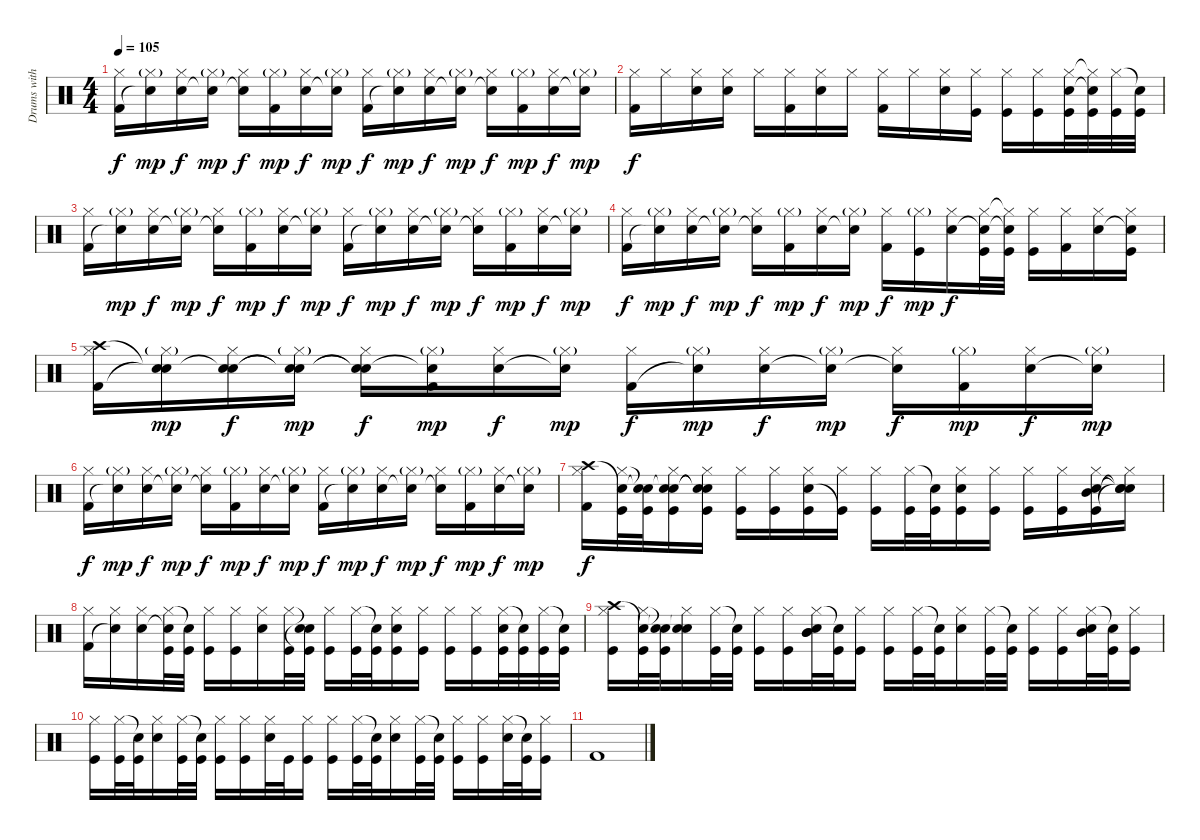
\track ("Drums with sampled drums (Rob and Joe)" "Drums with") {instrument percussion}
\staff {score}
\articulation defaults
\ts (4 4)
\tempo 105
\clef neutral
\ks c
("Hi-Hat (closed)" "Kick (hit) 2").16{dy f} ("Hi-Hat (closed)"{g} "Snare (hit)"{t}).16{dy mp} ("Hi-Hat (closed)" "Electric Snare (hit)").16{dy f} ("Hi-Hat (closed)"{g} "Snare (hit)"{t}).16{dy mp} ("Hi-Hat (closed)" "Snare (hit)"{t}).16{dy f} ("Hi-Hat (closed)"{g} "Kick (hit) 2").16{dy mp} ("Hi-Hat (closed)" "Electric Snare (hit)").16{dy f} ("Hi-Hat (closed)"{g} "Snare (hit)"{t}).16{dy mp} ("Hi-Hat (closed)" "Kick (hit) 2").16{dy f} ("Hi-Hat (closed)"{g} "Snare (hit)"{t}).16{dy mp} ("Hi-Hat (closed)" "Electric Snare (hit)").16{dy f} ("Hi-Hat (closed)"{g} "Snare (hit)"{t}).16{dy mp} ("Hi-Hat (closed)" "Snare (hit)"{t}).16{dy f} ("Hi-Hat (closed)"{g} "Kick (hit) 2").16{dy mp} ("Hi-Hat (closed)" "Electric Snare (hit)").16{dy f} ("Hi-Hat (closed)"{g} "Snare (hit)"{t}).16{dy mp} |
("Hi-Hat (closed)" "Kick (hit) 2").16{dy f} "Hi-Hat (closed)".16 ("Hi-Hat (closed)" "Electric Snare (hit)").16 ("Hi-Hat (closed)" "Electric Snare (hit)").16 "Hi-Hat (closed)".16 ("Hi-Hat (closed)" "Kick (hit) 2").16 ("Hi-Hat (closed)" "Electric Snare (hit)").16 "Hi-Hat (closed)".16 ("Hi-Hat (closed)" "Kick (hit) 2").16 "Hi-Hat (closed)".16 ("Hi-Hat (closed)" "Electric Snare (hit)").16 ("Hi-Hat (closed)" "Kick (hit)").16 ("Hi-Hat (closed)" "Kick (hit)").16 ("Hi-Hat (closed)" "Kick (hit)").16 ("Hi-Hat (closed)" "Electric Snare (hit)" "Kick (hit)").32 ("Hi-Hat (closed)"{t} "Snare (hit)"{t} "Kick (hit)").32 ("Hi-Hat (closed)" "Kick (hit)").32 ("Snare (hit)"{t} "Kick (hit)").32 |
("Hi-Hat (closed)" "Kick (hit) 2").16 ("Hi-Hat (closed)"{g} "Snare (hit)"{t}).16{dy mp} ("Hi-Hat (closed)" "Electric Snare (hit)").16{dy f} ("Hi-Hat (closed)"{g} "Snare (hit)"{t}).16{dy mp} ("Hi-Hat (closed)" "Snare (hit)"{t}).16{dy f} ("Hi-Hat (closed)"{g} "Kick (hit) 2").16{dy mp} ("Hi-Hat (closed)" "Electric Snare (hit)").16{dy f} ("Hi-Hat (closed)"{g} "Snare (hit)"{t}).16{dy mp} ("Hi-Hat (closed)" "Kick (hit) 2").16{dy f} ("Hi-Hat (closed)"{g} "Snare (hit)"{t}).16{dy mp} ("Hi-Hat (closed)" "Electric Snare (hit)").16{dy f} ("Hi-Hat (closed)"{g} "Snare (hit)"{t}).16{dy mp} ("Hi-Hat (closed)" "Snare (hit)"{t}).16{dy f} ("Hi-Hat (closed)"{g} "Kick (hit) 2").16{dy mp} ("Hi-Hat (closed)" "Electric Snare (hit)").16{dy f} ("Hi-Hat (closed)"{g} "Snare (hit)"{t}).16{dy mp} |
("Hi-Hat (closed)" "Kick (hit) 2").16{dy f} ("Hi-Hat (closed)"{g} "Snare (hit)"{t}).16{dy mp} ("Hi-Hat (closed)" "Electric Snare (hit)").16{dy f} ("Hi-Hat (closed)"{g} "Snare (hit)"{t}).16{dy mp} ("Hi-Hat (closed)" "Snare (hit)"{t}).16{dy f} ("Hi-Hat (closed)"{g} "Kick (hit) 2").16{dy mp} ("Hi-Hat (closed)" "Electric Snare (hit)").16{dy f} ("Hi-Hat (closed)"{g} "Snare (hit)"{t}).16{dy mp} ("Hi-Hat (closed)" "Kick (hit) 2").16{dy f} ("Hi-Hat (closed)"{g} "Kick (hit)").16{dy mp} ("Hi-Hat (closed)" "Electric Snare (hit)").16{dy f} ("Hi-Hat (closed)" "Snare (hit)"{t} "Kick (hit)").32 ("Hi-Hat (closed)"{t} "Snare (hit)"{t} "Kick (hit)").32 ("Hi-Hat (closed)" "Kick (hit)").16 ("Hi-Hat (closed)" "Kick (hit) 2").16 ("Hi-Hat (closed)" "Electric Snare (hit)").16 ("Hi-Hat (closed)" "Snare (hit)"{t} "Kick (hit)").16 |
("Crash high (hit)" "Hi-Hat (closed)" "Kick (hit) 2").16 ("Snare (hit)"{t} "Hi-Hat (closed)"{g} "Snare (hit)"{t}).16{dy mp} ("Snare (hit)"{t} "Hi-Hat (closed)" "Electric Snare (hit)").16{dy f} ("Snare (hit)"{t} "Hi-Hat (closed)"{g} "Snare (hit)"{t}).16{dy mp} ("Snare (hit)"{t} "Hi-Hat (closed)" "Snare (hit)"{t}).16{dy f} ("Snare (hit)"{t} "Hi-Hat (closed)"{g} "Kick (hit) 2").16{dy mp} ("Hi-Hat (closed)" "Electric Snare (hit)").16{dy f} ("Hi-Hat (closed)"{g} "Snare (hit)"{t}).16{dy mp} ("Hi-Hat (closed)" "Kick (hit) 2").16{dy f} ("Hi-Hat (closed)"{g} "Snare (hit)"{t}).16{dy mp} ("Hi-Hat (closed)" "Electric Snare (hit)").16{dy f} ("Hi-Hat (closed)"{g} "Snare (hit)"{t}).16{dy mp} ("Hi-Hat (closed)" "Snare (hit)"{t}).16{dy f} ("Hi-Hat (closed)"{g} "Kick (hit) 2").16{dy mp} ("Hi-Hat (closed)" "Electric Snare (hit)").16{dy f} ("Hi-Hat (closed)"{g} "Snare (hit)"{t}).16{dy mp} |
("Hi-Hat (closed)" "Kick (hit) 2").16{dy f} ("Hi-Hat (closed)"{g} "Snare (hit)"{t}).16{dy mp} ("Hi-Hat (closed)" "Electric Snare (hit)").16{dy f} ("Hi-Hat (closed)"{g} "Snare (hit)"{t}).16{dy mp} ("Hi-Hat (closed)" "Snare (hit)"{t}).16{dy f} ("Hi-Hat (closed)"{g} "Kick (hit) 2").16{dy mp} ("Hi-Hat (closed)" "Electric Snare (hit)").16{dy f} ("Hi-Hat (closed)"{g} "Snare (hit)"{t}).16{dy mp} ("Hi-Hat (closed)" "Kick (hit) 2").16{dy f} ("Hi-Hat (closed)"{g} "Snare (hit)"{t}).16{dy mp} ("Hi-Hat (closed)" "Electric Snare (hit)").16{dy f} ("Hi-Hat (closed)"{g} "Snare (hit)"{t}).16{dy mp} ("Hi-Hat (closed)" "Snare (hit)"{t}).16{dy f} ("Hi-Hat (closed)"{g} "Kick (hit) 2").16{dy mp} ("Hi-Hat (closed)" "Electric Snare (hit)").16{dy f} ("Hi-Hat (closed)"{g} "Snare (hit)"{t}).16{dy mp} |
("Crash high (hit)" "Hi-Hat (closed)" "Kick (hit) 2").16{dy f} ("Snare (hit)"{t} "Hi-Hat (closed)" "Kick (hit)").32 ("Snare (hit)"{t} "Snare (hit)"{t} "Kick (hit)").32 ("Snare (hit)"{t} "Hi-Hat (closed)" "Electric Snare (hit)" "Kick (hit)").16 ("Snare (hit)"{t} "Hi-Hat (closed)" "Snare (hit)"{t} "Kick (hit)").16 ("Hi-Hat (closed)" "Kick (hit)").16 ("Hi-Hat (closed)" "Kick (hit)").16 ("Hi-Hat (closed)" "Electric Snare (hit)" "Kick (hit)").16 ("Hi-Hat (closed)" "Kick (hit)"{t}).16 ("Hi-Hat (closed)" "Kick (hit)").16 ("Hi-Hat (closed)" "Kick (hit)").32 ("Snare (hit)"{t} "Kick (hit)").32 ("Hi-Hat (closed)" "Electric Snare (hit)" "Kick (hit)").16 ("Hi-Hat (closed)" "Kick (hit)").16 ("Hi-Hat (closed)" "Kick (hit)").16 ("Hi-Hat (closed)" "Kick (hit)").16 ("Hi-Hat (closed)" "Electric Snare (hit)" "Mid Tom (hit)" "Kick (hit)").16 ("Hi-Hat (closed)" "Snare (hit)"{t} "Snare (hit)"{t} "Snare (hit)"{t}).16 |
("Hi-Hat (closed)" "Kick (hit) 2").16 ("Hi-Hat (closed)" "Snare (hit)"{t}).16 ("Hi-Hat (closed)" "Electric Snare (hit)").16 ("Hi-Hat (closed)" "Snare (hit)"{t} "Kick (hit)").32 ("Snare (hit)"{t} "Kick (hit)").32 ("Hi-Hat (closed)" "Kick (hit)").16 ("Hi-Hat (closed)" "Kick (hit)").16 ("Hi-Hat (closed)" "Electric Snare (hit)").16 ("Hi-Hat (closed)" "Kick (hit)").32 ("Snare (hit)"{t} "Snare (hit)"{t} "Kick (hit)").32 ("Hi-Hat (closed)" "Kick (hit)").16 ("Hi-Hat (closed)" "Kick (hit)").32 ("Snare (hit)"{t} "Kick (hit)").32 ("Hi-Hat (closed)" "Electric Snare (hit)" "Kick (hit)").16 ("Hi-Hat (closed)" "Kick (hit)").16 ("Hi-Hat (closed)" "Kick (hit)").16 ("Hi-Hat (closed)" "Kick (hit)").16 ("Hi-Hat (closed)" "Electric Snare (hit)" "Kick (hit)").32 ("Snare (hit)"{t} "Kick (hit)").32 ("Hi-Hat (closed)" "Kick (hit)").32 ("Snare (hit)"{t} "Kick (hit)").32 |
("Crash high (hit)" "Hi-Hat (closed)" "Kick (hit)").16 ("Snare (hit)"{t} "Hi-Hat (closed)" "Kick (hit)").32 ("Snare (hit)"{t} "Snare (hit)"{t} "Kick (hit)").32 ("Snare (hit)"{t} "Hi-Hat (closed)" "Electric Snare (hit)").16 ("Hi-Hat (closed)" "Kick (hit)").32 ("Snare (hit)"{t} "Kick (hit)").32 ("Hi-Hat (closed)" "Kick (hit)").16 ("Hi-Hat (closed)" "Kick (hit)").16 ("Hi-Hat (closed)" "Mid Tom (hit)" "Electric Snare (hit)" "Mid Tom (hit)").32 ("Snare (hit)"{t} "Kick (hit)").32 ("Hi-Hat (closed)" "Kick (hit)").16 ("Hi-Hat (closed)" "Kick (hit)").16 ("Hi-Hat (closed)" "Kick (hit)").32 ("Snare (hit)"{t} "Kick (hit)").32 ("Hi-Hat (closed)" "Electric Snare (hit)").16 ("Hi-Hat (closed)" "Kick (hit)").32 ("Snare (hit)"{t} "Kick (hit)").32 ("Hi-Hat (closed)" "Kick (hit)").16 ("Hi-Hat (closed)" "Kick (hit)").16 ("Hi-Hat (closed)" "Electric Snare (hit)" "Mid Tom (hit)").32 ("Snare (hit)"{t} "Kick (hit)").32 ("Hi-Hat (closed)" "Kick (hit)").16 |
("Hi-Hat (closed)" "Kick (hit)").16 ("Hi-Hat (closed)" "Kick (hit)").32 ("Snare (hit)"{t} "Kick (hit)").32 ("Hi-Hat (closed)" "Electric Snare (hit)").16 ("Hi-Hat (closed)" "Kick (hit)").32 ("Snare (hit)"{t} "Kick (hit)").32 ("Hi-Hat (closed)" "Kick (hit)").16 ("Hi-Hat (closed)" "Kick (hit)").16 ("Hi-Hat (closed)" "Electric Snare (hit)").32 "Kick (hit)".32 ("Hi-Hat (closed)" "Kick (hit)").16 ("Hi-Hat (closed)" "Kick (hit)").16 ("Hi-Hat (closed)" "Kick (hit)").32 ("Snare (hit)"{t} "Kick (hit)").32 ("Hi-Hat (closed)" "Electric Snare (hit)").16 ("Hi-Hat (closed)" "Kick (hit)").32 ("Snare (hit)"{t} "Kick (hit)").32 ("Hi-Hat (closed)" "Kick (hit)").16 ("Hi-Hat (closed)" "Kick (hit)").16 ("Hi-Hat (closed)" "Electric Snare (hit)").32 ("Snare (hit)"{t} "Kick (hit)").32 ("Hi-Hat (closed)" "Kick (hit)").16 |
"Kick (hit) 2".1
